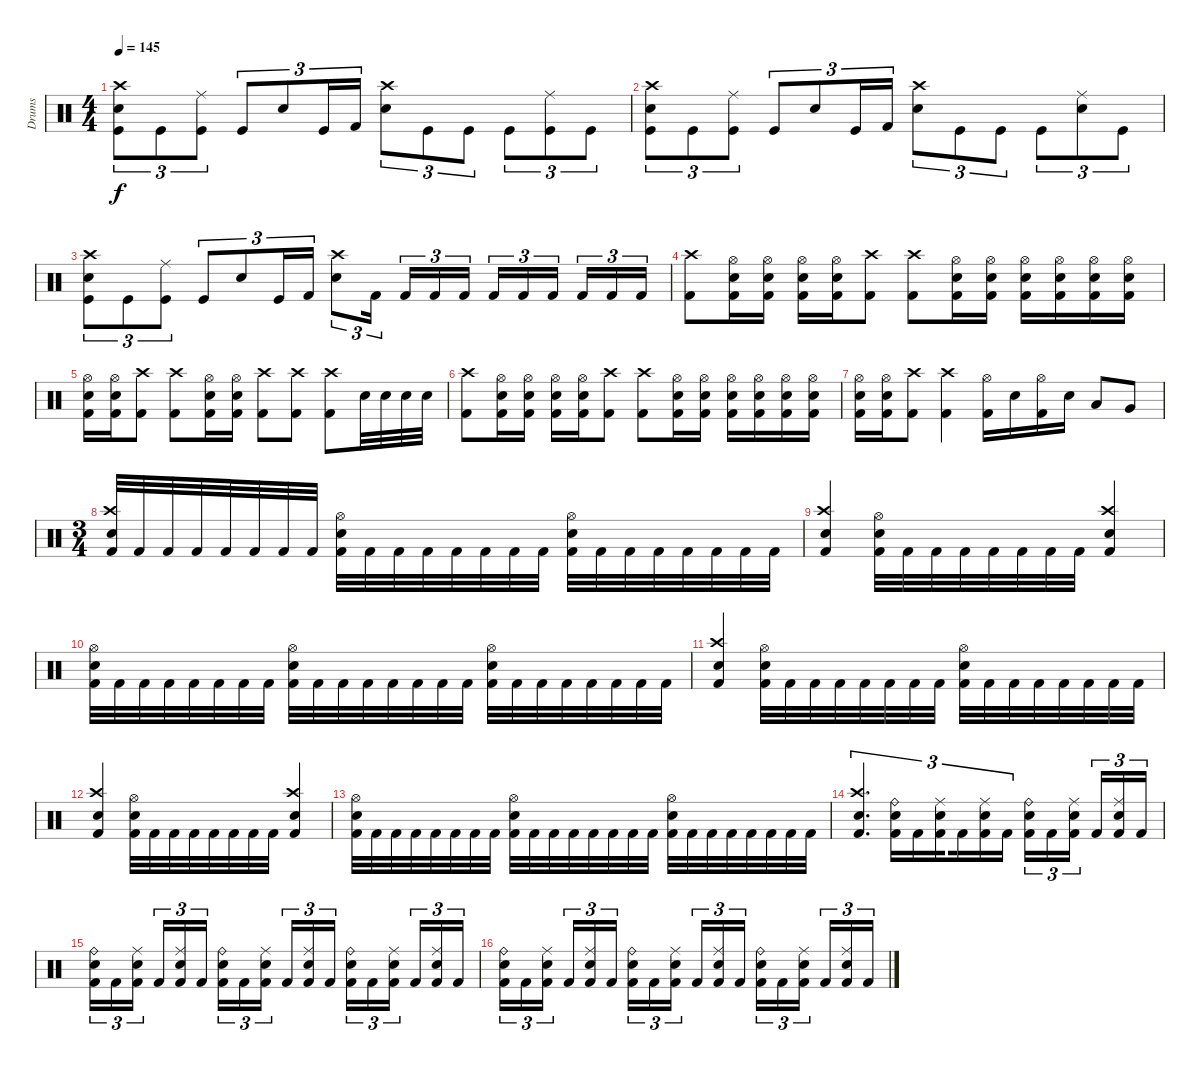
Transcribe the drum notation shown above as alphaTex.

\track ("Drums" "Drums") {instrument percussion}
\staff {score}
\articulation defaults
\ts (4 4)
\tempo 145
\clef neutral
\ks c
("Snare (hit) 2" "Kick (hit)" "Crash high (hit)").8{tu (3 2) dy f} "Kick (hit)".8{tu (3 2)} ("Kick (hit)" "Ride (middle)").8{tu (3 2)} "Kick (hit)".8{tu (3 2)} "Snare (hit) 2".8{tu (3 2)} "Kick (hit)".16{tu (3 2)} "Kick (hit) 2".16{tu (3 2)} ("Snare (hit) 2" "Crash high (hit)").8{tu (3 2)} "Kick (hit)".8{tu (3 2)} "Kick (hit)".8{tu (3 2)} "Kick (hit)".8{tu (3 2)} ("Kick (hit)" "Ride (middle)").8{tu (3 2)} "Kick (hit)".8{tu (3 2)} |
("Snare (hit) 2" "Kick (hit)" "Crash high (hit)").8{tu (3 2)} "Kick (hit)".8{tu (3 2)} ("Kick (hit)" "Ride (middle)").8{tu (3 2)} "Kick (hit)".8{tu (3 2)} "Snare (hit) 2".8{tu (3 2)} "Kick (hit)".16{tu (3 2)} "Kick (hit) 2".16{tu (3 2)} ("Snare (hit) 2" "Crash high (hit)").8{tu (3 2)} "Kick (hit)".8{tu (3 2)} "Kick (hit)".8{tu (3 2)} "Kick (hit)".8{tu (3 2)} ("Ride (middle)" "Snare (hit) 2").8{tu (3 2)} "Kick (hit)".8{tu (3 2)} |
("Snare (hit) 2" "Kick (hit)" "Crash high (hit)").8{tu (3 2)} "Kick (hit)".8{tu (3 2)} ("Kick (hit)" "Ride (middle)").8{tu (3 2)} "Kick (hit)".8{tu (3 2)} "Snare (hit) 2".8{tu (3 2)} "Kick (hit)".16{tu (3 2)} "Kick (hit) 2".16{tu (3 2)} ("Snare (hit) 2" "Crash high (hit)").8{tu (3 2)} "Kick (hit) 2".16{tu (3 2) beam splitsecondary} "Kick (hit) 2".16{tu (3 2)} "Kick (hit) 2".16{tu (3 2)} "Kick (hit) 2".16{tu (3 2)} "Kick (hit) 2".16{tu (3 2)} "Kick (hit) 2".16{tu (3 2)} "Kick (hit) 2".16{tu (3 2) beam splitsecondary} "Kick (hit) 2".16{tu (3 2)} "Kick (hit) 2".16{tu (3 2)} "Kick (hit) 2".16{tu (3 2)} |
("Kick (hit) 2" "Crash high (hit)").8 ("Snare (hit) 2" "Kick (hit) 2" "Hi-Hat (open)").16 ("Snare (hit) 2" "Kick (hit) 2" "Hi-Hat (open)").16 ("Snare (hit) 2" "Kick (hit) 2" "Hi-Hat (open)").16 ("Snare (hit) 2" "Kick (hit) 2" "Hi-Hat (open)").16 ("Kick (hit) 2" "Crash high (hit)").8 ("Kick (hit) 2" "Crash high (hit)").8 ("Snare (hit) 2" "Kick (hit) 2" "Hi-Hat (open)").16 ("Snare (hit) 2" "Kick (hit) 2" "Hi-Hat (open)").16 ("Snare (hit) 2" "Kick (hit) 2" "Hi-Hat (open)").16 ("Snare (hit) 2" "Kick (hit) 2" "Hi-Hat (open)").16 ("Snare (hit) 2" "Kick (hit) 2" "Hi-Hat (open)").16 ("Snare (hit) 2" "Kick (hit) 2" "Hi-Hat (open)").16 |
("Snare (hit) 2" "Kick (hit) 2" "Hi-Hat (open)").16 ("Snare (hit) 2" "Kick (hit) 2" "Hi-Hat (open)").16 ("Kick (hit) 2" "Crash high (hit)").8 ("Kick (hit) 2" "Crash high (hit)").8 ("Snare (hit) 2" "Kick (hit) 2" "Hi-Hat (open)").16 ("Snare (hit) 2" "Kick (hit) 2" "Hi-Hat (open)").16 ("Kick (hit) 2" "Crash high (hit)").8 ("Kick (hit) 2" "Crash high (hit)").8 ("Kick (hit) 2" "Crash high (hit)").8 "Snare (hit) 2".32{volume 11} "Snare (hit) 2".32 "Snare (hit) 2".32 "Snare (hit) 2".32 |
("Kick (hit) 2" "Crash high (hit)").8 ("Snare (hit) 2" "Kick (hit) 2" "Hi-Hat (open)").16 ("Snare (hit) 2" "Kick (hit) 2" "Hi-Hat (open)").16 ("Snare (hit) 2" "Kick (hit) 2" "Hi-Hat (open)").16 ("Snare (hit) 2" "Kick (hit) 2" "Hi-Hat (open)").16 ("Kick (hit) 2" "Crash high (hit)").8 ("Kick (hit) 2" "Crash high (hit)").8 ("Snare (hit) 2" "Kick (hit) 2" "Hi-Hat (open)").16 ("Snare (hit) 2" "Kick (hit) 2" "Hi-Hat (open)").16 ("Snare (hit) 2" "Kick (hit) 2" "Hi-Hat (open)").16 ("Snare (hit) 2" "Kick (hit) 2" "Hi-Hat (open)").16 ("Snare (hit) 2" "Kick (hit) 2" "Hi-Hat (open)").16 ("Snare (hit) 2" "Kick (hit) 2" "Hi-Hat (open)").16 |
("Snare (hit) 2" "Kick (hit) 2" "Hi-Hat (open)").16 ("Snare (hit) 2" "Kick (hit) 2" "Hi-Hat (open)").16 ("Kick (hit) 2" "Crash high (hit)").8 ("Kick (hit) 2" "Crash high (hit)").4 ("Hi-Hat (open)" "Kick (hit) 2").16 "Snare (hit) 2".16 ("Hi-Hat (open)" "Kick (hit) 2").16 "Snare (hit) 2".16 "Low Tom (hit)".8 "Very Low Tom (hit)".8 |
\ts (3 4)
("Kick (hit) 2" "Crash high (hit)" "Snare (hit) 2").32 "Kick (hit) 2".32 "Kick (hit) 2".32 "Kick (hit) 2".32 "Kick (hit) 2".32 "Kick (hit) 2".32 "Kick (hit) 2".32 "Kick (hit) 2".32 ("Kick (hit) 2" "Snare (hit) 2" "Hi-Hat (open)").32 "Kick (hit) 2".32 "Kick (hit) 2".32 "Kick (hit) 2".32 "Kick (hit) 2".32 "Kick (hit) 2".32 "Kick (hit) 2".32 "Kick (hit) 2".32 ("Kick (hit) 2" "Snare (hit) 2" "Hi-Hat (open)").32 "Kick (hit) 2".32 "Kick (hit) 2".32 "Kick (hit) 2".32 "Kick (hit) 2".32 "Kick (hit) 2".32 "Kick (hit) 2".32 "Kick (hit) 2".32 |
("Kick (hit) 2" "Crash high (hit)" "Snare (hit) 2").4 ("Kick (hit) 2" "Snare (hit) 2" "Hi-Hat (open)").32 "Kick (hit) 2".32 "Kick (hit) 2".32 "Kick (hit) 2".32 "Kick (hit) 2".32 "Kick (hit) 2".32 "Kick (hit) 2".32 "Kick (hit) 2".32 ("Kick (hit) 2" "Crash high (hit)" "Snare (hit) 2").4 |
("Kick (hit) 2" "Hi-Hat (open)" "Snare (hit) 2").32 "Kick (hit) 2".32 "Kick (hit) 2".32 "Kick (hit) 2".32 "Kick (hit) 2".32 "Kick (hit) 2".32 "Kick (hit) 2".32 "Kick (hit) 2".32 ("Kick (hit) 2" "Snare (hit) 2" "Hi-Hat (open)").32 "Kick (hit) 2".32 "Kick (hit) 2".32 "Kick (hit) 2".32 "Kick (hit) 2".32 "Kick (hit) 2".32 "Kick (hit) 2".32 "Kick (hit) 2".32 ("Kick (hit) 2" "Snare (hit) 2" "Hi-Hat (open)").32 "Kick (hit) 2".32 "Kick (hit) 2".32 "Kick (hit) 2".32 "Kick (hit) 2".32 "Kick (hit) 2".32 "Kick (hit) 2".32 "Kick (hit) 2".32 |
("Kick (hit) 2" "Crash high (hit)" "Snare (hit) 2").4 ("Kick (hit) 2" "Snare (hit) 2" "Hi-Hat (open)").32 "Kick (hit) 2".32 "Kick (hit) 2".32 "Kick (hit) 2".32 "Kick (hit) 2".32 "Kick (hit) 2".32 "Kick (hit) 2".32 "Kick (hit) 2".32 ("Kick (hit) 2" "Snare (hit) 2" "Hi-Hat (open)").32 "Kick (hit) 2".32 "Kick (hit) 2".32 "Kick (hit) 2".32 "Kick (hit) 2".32 "Kick (hit) 2".32 "Kick (hit) 2".32 "Kick (hit) 2".32 |
("Kick (hit) 2" "Crash high (hit)" "Snare (hit) 2").4 ("Kick (hit) 2" "Snare (hit) 2" "Hi-Hat (open)").32 "Kick (hit) 2".32 "Kick (hit) 2".32 "Kick (hit) 2".32 "Kick (hit) 2".32 "Kick (hit) 2".32 "Kick (hit) 2".32 "Kick (hit) 2".32 ("Kick (hit) 2" "Crash high (hit)" "Snare (hit) 2").4 |
("Kick (hit) 2" "Hi-Hat (open)" "Snare (hit) 2").32 "Kick (hit) 2".32 "Kick (hit) 2".32 "Kick (hit) 2".32 "Kick (hit) 2".32 "Kick (hit) 2".32 "Kick (hit) 2".32 "Kick (hit) 2".32 ("Kick (hit) 2" "Snare (hit) 2" "Hi-Hat (open)").32 "Kick (hit) 2".32 "Kick (hit) 2".32 "Kick (hit) 2".32 "Kick (hit) 2".32 "Kick (hit) 2".32 "Kick (hit) 2".32 "Kick (hit) 2".32 ("Kick (hit) 2" "Snare (hit) 2" "Hi-Hat (open)").32 "Kick (hit) 2".32 "Kick (hit) 2".32 "Kick (hit) 2".32 "Kick (hit) 2".32 "Kick (hit) 2".32 "Kick (hit) 2".32 "Kick (hit) 2".32 |
("Kick (hit) 2" "Crash high (hit)" "Snare (hit) 2").4{d tu (3 2)} ("Kick (hit) 2" "Snare (hit) 2" "Ride (bell)").16{tu (3 2)} "Kick (hit) 2".16{tu (3 2)} ("Kick (hit) 2" "Snare (hit) 2" "Ride (middle)").16{tu (3 2) beam splitsecondary} "Kick (hit) 2".16{tu (3 2)} ("Kick (hit) 2" "Snare (hit) 2" "Ride (middle)").16{tu (3 2)} "Kick (hit) 2".16{tu (3 2)} ("Kick (hit) 2" "Snare (hit) 2" "Ride (bell)").16{tu (3 2)} "Kick (hit) 2".16{tu (3 2)} ("Kick (hit) 2" "Snare (hit) 2" "Ride (middle)").16{tu (3 2) beam splitsecondary} "Kick (hit) 2".16{tu (3 2)} ("Kick (hit) 2" "Snare (hit) 2" "Ride (middle)").16{tu (3 2)} "Kick (hit) 2".16{tu (3 2)} |
("Kick (hit) 2" "Snare (hit) 2" "Ride (bell)").16{tu (3 2)} "Kick (hit) 2".16{tu (3 2)} ("Kick (hit) 2" "Snare (hit) 2" "Ride (middle)").16{tu (3 2) beam splitsecondary} "Kick (hit) 2".16{tu (3 2)} ("Kick (hit) 2" "Snare (hit) 2" "Ride (middle)").16{tu (3 2)} "Kick (hit) 2".16{tu (3 2)} ("Kick (hit) 2" "Snare (hit) 2" "Ride (bell)").16{tu (3 2)} "Kick (hit) 2".16{tu (3 2)} ("Kick (hit) 2" "Snare (hit) 2" "Ride (middle)").16{tu (3 2) beam splitsecondary} "Kick (hit) 2".16{tu (3 2)} ("Kick (hit) 2" "Snare (hit) 2" "Ride (middle)").16{tu (3 2)} "Kick (hit) 2".16{tu (3 2)} ("Kick (hit) 2" "Snare (hit) 2" "Ride (bell)").16{tu (3 2)} "Kick (hit) 2".16{tu (3 2)} ("Kick (hit) 2" "Snare (hit) 2" "Ride (middle)").16{tu (3 2) beam splitsecondary} "Kick (hit) 2".16{tu (3 2)} ("Kick (hit) 2" "Snare (hit) 2" "Ride (middle)").16{tu (3 2)} "Kick (hit) 2".16{tu (3 2)} |
("Kick (hit) 2" "Snare (hit) 2" "Ride (bell)").16{tu (3 2)} "Kick (hit) 2".16{tu (3 2)} ("Kick (hit) 2" "Snare (hit) 2" "Ride (middle)").16{tu (3 2) beam splitsecondary} "Kick (hit) 2".16{tu (3 2)} ("Kick (hit) 2" "Snare (hit) 2" "Ride (middle)").16{tu (3 2)} "Kick (hit) 2".16{tu (3 2)} ("Kick (hit) 2" "Snare (hit) 2" "Ride (bell)").16{tu (3 2)} "Kick (hit) 2".16{tu (3 2)} ("Kick (hit) 2" "Snare (hit) 2" "Ride (middle)").16{tu (3 2) beam splitsecondary} "Kick (hit) 2".16{tu (3 2)} ("Kick (hit) 2" "Snare (hit) 2" "Ride (middle)").16{tu (3 2)} "Kick (hit) 2".16{tu (3 2)} ("Kick (hit) 2" "Snare (hit) 2" "Ride (bell)").16{tu (3 2)} "Kick (hit) 2".16{tu (3 2)} ("Kick (hit) 2" "Snare (hit) 2" "Ride (middle)").16{tu (3 2) beam splitsecondary} "Kick (hit) 2".16{tu (3 2)} ("Kick (hit) 2" "Snare (hit) 2" "Ride (middle)").16{tu (3 2)} "Kick (hit) 2".16{tu (3 2)}
